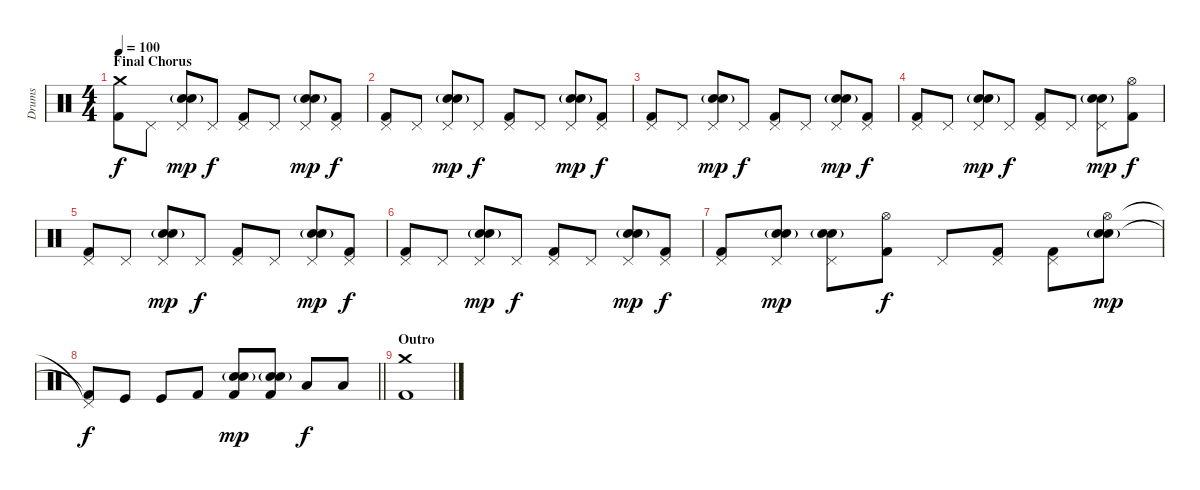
\track ("Drums" "Drums") {instrument percussion}
\staff {score}
\articulation defaults
\ts (4 4)
\section ("" "Final Chorus")
\tempo 100
\clef neutral
\ks c
("Crash medium (hit)" "Kick (hit) 2").8{dy f} "Pedal Hi-Hat (hit)".8 ("Pedal Hi-Hat (hit)" "Snare (hit) 2" "Electric Snare (hit)"{g}).8{dy mp} "Pedal Hi-Hat (hit)".8{dy f} ("Pedal Hi-Hat (hit)" "Kick (hit) 2").8 "Pedal Hi-Hat (hit)".8 ("Pedal Hi-Hat (hit)" "Snare (hit) 2" "Electric Snare (hit)"{g}).8{dy mp} ("Pedal Hi-Hat (hit)" "Kick (hit) 2").8{dy f} |
("Pedal Hi-Hat (hit)" "Kick (hit) 2").8 "Pedal Hi-Hat (hit)".8 ("Pedal Hi-Hat (hit)" "Snare (hit) 2" "Electric Snare (hit)"{g}).8{dy mp} "Pedal Hi-Hat (hit)".8{dy f} ("Pedal Hi-Hat (hit)" "Kick (hit) 2").8 "Pedal Hi-Hat (hit)".8 ("Pedal Hi-Hat (hit)" "Snare (hit) 2" "Electric Snare (hit)"{g}).8{dy mp} ("Pedal Hi-Hat (hit)" "Kick (hit) 2").8{dy f} |
("Pedal Hi-Hat (hit)" "Kick (hit) 2").8 "Pedal Hi-Hat (hit)".8 ("Pedal Hi-Hat (hit)" "Snare (hit) 2" "Electric Snare (hit)"{g}).8{dy mp} "Pedal Hi-Hat (hit)".8{dy f} ("Pedal Hi-Hat (hit)" "Kick (hit) 2").8 "Pedal Hi-Hat (hit)".8 ("Pedal Hi-Hat (hit)" "Snare (hit) 2" "Electric Snare (hit)"{g}).8{dy mp} ("Pedal Hi-Hat (hit)" "Kick (hit) 2").8{dy f} |
("Pedal Hi-Hat (hit)" "Kick (hit) 2").8 "Pedal Hi-Hat (hit)".8 ("Pedal Hi-Hat (hit)" "Snare (hit) 2" "Electric Snare (hit)"{g}).8{dy mp} "Pedal Hi-Hat (hit)".8{dy f} ("Pedal Hi-Hat (hit)" "Kick (hit) 2").8 "Pedal Hi-Hat (hit)".8 ("Pedal Hi-Hat (hit)" "Snare (hit) 2" "Electric Snare (hit)"{g}).8{dy mp} ("Hi-Hat (open)" "Kick (hit) 2").8{dy f} |
("Pedal Hi-Hat (hit)" "Kick (hit) 2").8 "Pedal Hi-Hat (hit)".8 ("Pedal Hi-Hat (hit)" "Snare (hit) 2" "Electric Snare (hit)"{g}).8{dy mp} "Pedal Hi-Hat (hit)".8{dy f} ("Pedal Hi-Hat (hit)" "Kick (hit) 2").8 "Pedal Hi-Hat (hit)".8 ("Pedal Hi-Hat (hit)" "Snare (hit) 2" "Electric Snare (hit)"{g}).8{dy mp} ("Pedal Hi-Hat (hit)" "Kick (hit) 2").8{dy f} |
("Pedal Hi-Hat (hit)" "Kick (hit) 2").8 "Pedal Hi-Hat (hit)".8 ("Pedal Hi-Hat (hit)" "Snare (hit) 2" "Electric Snare (hit)"{g}).8{dy mp} "Pedal Hi-Hat (hit)".8{dy f} ("Pedal Hi-Hat (hit)" "Kick (hit) 2").8 "Pedal Hi-Hat (hit)".8 ("Pedal Hi-Hat (hit)" "Snare (hit) 2" "Electric Snare (hit)"{g}).8{dy mp} ("Pedal Hi-Hat (hit)" "Kick (hit) 2").8{dy f} |
("Pedal Hi-Hat (hit)" "Kick (hit) 2").8 ("Pedal Hi-Hat (hit)" "Snare (hit) 2" "Electric Snare (hit)"{g}).8{dy mp} ("Pedal Hi-Hat (hit)" "Snare (hit) 2" "Electric Snare (hit)"{g}).8 ("Hi-Hat (open)" "Kick (hit) 2").8{dy f} "Pedal Hi-Hat (hit)".8 ("Pedal Hi-Hat (hit)" "Kick (hit) 2").8 ("Pedal Hi-Hat (hit)" "Kick (hit) 2").8 ("Hi-Hat (open)" "Snare (hit) 2" "Electric Snare (hit)"{g}).8{dy mp} |
\barLineRight lightlight
("Pedal Hi-Hat (hit)"{t} "Kick (hit) 2"{t}).8{dy f} "Kick (hit)".8 "Kick (hit)".8 "Kick (hit) 2".8 ("Snare (hit) 2" "Electric Snare (hit)"{g} "Kick (hit) 2").8{dy mp} ("Snare (hit) 2" "Electric Snare (hit)"{g} "Kick (hit) 2").8 "Low Tom (hit)".8{dy f} "Low Floor Tom (hit)".8 |
\section ("" "Outro")
("Crash medium (hit)" "Kick (hit) 2").1
